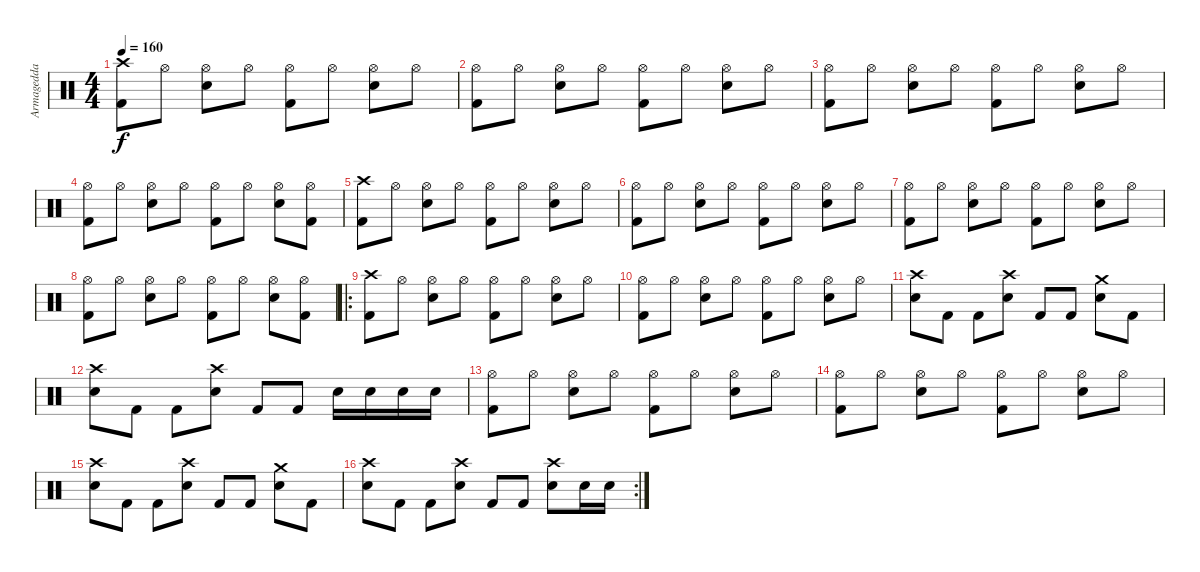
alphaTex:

\track ("Armagedda" "Armagedda") {instrument percussion}
\staff {score}
\articulation defaults
\ts (4 4)
\tempo 160
\clef neutral
\ks c
("Crash high (hit)" "Kick (hit) 2").8{dy f} "Hi-Hat (open)".8 ("Hi-Hat (open)" "Snare (hit) 2").8 "Hi-Hat (open)".8 ("Hi-Hat (open)" "Kick (hit) 2").8 "Hi-Hat (open)".8 ("Hi-Hat (open)" "Snare (hit) 2").8 "Hi-Hat (open)".8 |
("Hi-Hat (open)" "Kick (hit) 2").8 "Hi-Hat (open)".8 ("Hi-Hat (open)" "Snare (hit) 2").8 "Hi-Hat (open)".8 ("Hi-Hat (open)" "Kick (hit) 2").8 "Hi-Hat (open)".8 ("Hi-Hat (open)" "Snare (hit) 2").8 "Hi-Hat (open)".8 |
("Hi-Hat (open)" "Kick (hit) 2").8 "Hi-Hat (open)".8 ("Hi-Hat (open)" "Snare (hit) 2").8 "Hi-Hat (open)".8 ("Hi-Hat (open)" "Kick (hit) 2").8 "Hi-Hat (open)".8 ("Hi-Hat (open)" "Snare (hit) 2").8 "Hi-Hat (open)".8 |
("Hi-Hat (open)" "Kick (hit) 2").8 "Hi-Hat (open)".8 ("Hi-Hat (open)" "Snare (hit) 2").8 "Hi-Hat (open)".8 ("Hi-Hat (open)" "Kick (hit) 2").8 "Hi-Hat (open)".8 ("Hi-Hat (open)" "Snare (hit) 2").8 ("Hi-Hat (open)" "Kick (hit) 2").8 |
("Crash high (hit)" "Kick (hit) 2").8 "Hi-Hat (open)".8 ("Hi-Hat (open)" "Snare (hit) 2").8 "Hi-Hat (open)".8 ("Hi-Hat (open)" "Kick (hit) 2").8 "Hi-Hat (open)".8 ("Hi-Hat (open)" "Snare (hit) 2").8 "Hi-Hat (open)".8 |
("Hi-Hat (open)" "Kick (hit) 2").8 "Hi-Hat (open)".8 ("Hi-Hat (open)" "Snare (hit) 2").8 "Hi-Hat (open)".8 ("Hi-Hat (open)" "Kick (hit) 2").8 "Hi-Hat (open)".8 ("Hi-Hat (open)" "Snare (hit) 2").8 "Hi-Hat (open)".8 |
("Hi-Hat (open)" "Kick (hit) 2").8 "Hi-Hat (open)".8 ("Hi-Hat (open)" "Snare (hit) 2").8 "Hi-Hat (open)".8 ("Hi-Hat (open)" "Kick (hit) 2").8 "Hi-Hat (open)".8 ("Hi-Hat (open)" "Snare (hit) 2").8 "Hi-Hat (open)".8 |
("Hi-Hat (open)" "Kick (hit) 2").8 "Hi-Hat (open)".8 ("Hi-Hat (open)" "Snare (hit) 2").8 "Hi-Hat (open)".8 ("Hi-Hat (open)" "Kick (hit) 2").8 "Hi-Hat (open)".8 ("Hi-Hat (open)" "Snare (hit) 2").8 ("Hi-Hat (open)" "Kick (hit) 2").8 |
\ro
("Crash high (hit)" "Kick (hit) 2").8 "Hi-Hat (open)".8 ("Hi-Hat (open)" "Snare (hit) 2").8 "Hi-Hat (open)".8 ("Hi-Hat (open)" "Kick (hit) 2").8 "Hi-Hat (open)".8 ("Hi-Hat (open)" "Snare (hit) 2").8 "Hi-Hat (open)".8 |
("Hi-Hat (open)" "Kick (hit) 2").8 "Hi-Hat (open)".8 ("Hi-Hat (open)" "Snare (hit) 2").8 "Hi-Hat (open)".8 ("Hi-Hat (open)" "Kick (hit) 2").8 "Hi-Hat (open)".8 ("Hi-Hat (open)" "Snare (hit) 2").8 "Hi-Hat (open)".8 |
("Crash high (hit)" "Snare (hit) 2").8 "Kick (hit) 2".8 "Kick (hit) 2".8 ("Crash high (hit)" "Snare (hit) 2").8 "Kick (hit) 2".8 "Kick (hit) 2".8 ("Crash medium (hit)" "Snare (hit) 2").8 "Kick (hit) 2".8 |
("Crash high (hit)" "Snare (hit) 2").8 "Kick (hit) 2".8 "Kick (hit) 2".8 ("Crash high (hit)" "Snare (hit) 2").8 "Kick (hit) 2".8 "Kick (hit) 2".8 "Snare (hit) 2".16 "Snare (hit) 2".16 "Snare (hit) 2".16 "Snare (hit) 2".16 |
("Hi-Hat (open)" "Kick (hit) 2").8 "Hi-Hat (open)".8 ("Hi-Hat (open)" "Snare (hit) 2").8 "Hi-Hat (open)".8 ("Hi-Hat (open)" "Kick (hit) 2").8 "Hi-Hat (open)".8 ("Hi-Hat (open)" "Snare (hit) 2").8 "Hi-Hat (open)".8 |
("Hi-Hat (open)" "Kick (hit) 2").8 "Hi-Hat (open)".8 ("Hi-Hat (open)" "Snare (hit) 2").8 "Hi-Hat (open)".8 ("Hi-Hat (open)" "Kick (hit) 2").8 "Hi-Hat (open)".8 ("Hi-Hat (open)" "Snare (hit) 2").8 "Hi-Hat (open)".8 |
("Crash high (hit)" "Snare (hit) 2").8 "Kick (hit) 2".8 "Kick (hit) 2".8 ("Crash high (hit)" "Snare (hit) 2").8 "Kick (hit) 2".8 "Kick (hit) 2".8 ("Crash medium (hit)" "Snare (hit) 2").8 "Kick (hit) 2".8 |
\rc 2
("Crash high (hit)" "Snare (hit) 2").8 "Kick (hit) 2".8 "Kick (hit) 2".8 ("Crash high (hit)" "Snare (hit) 2").8 "Kick (hit) 2".8 "Kick (hit) 2".8 ("Crash high (hit)" "Snare (hit) 2").8 "Snare (hit) 2".16 "Snare (hit) 2".16
